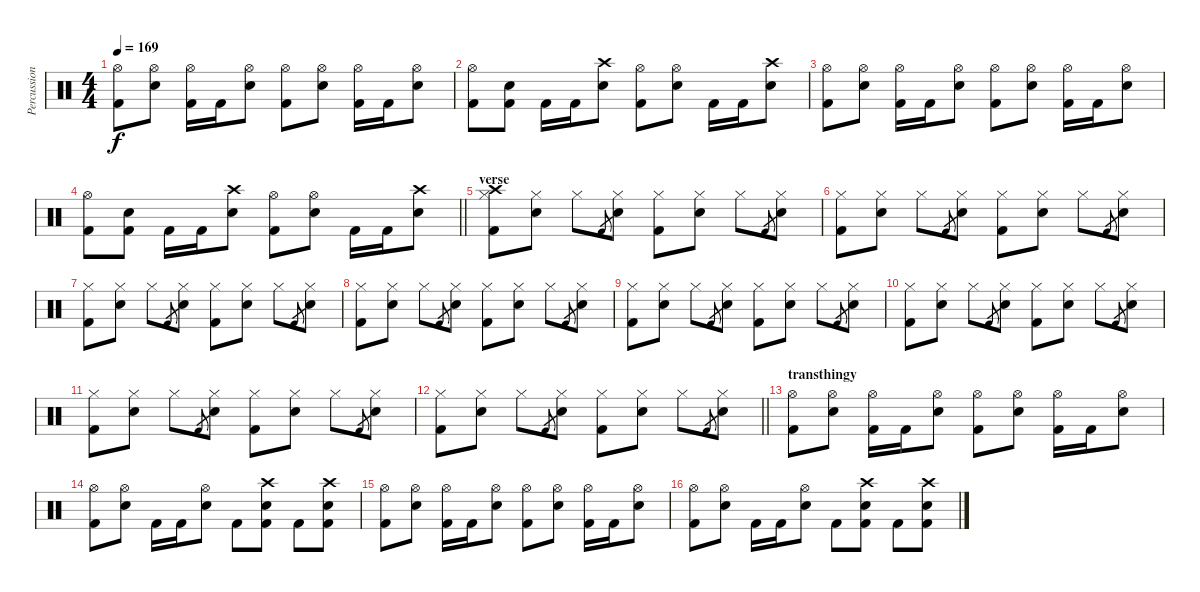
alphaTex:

\track ("Percussion" "Percussion") {instrument percussion}
\staff {score}
\articulation defaults
\ts (4 4)
\tempo 169
\clef neutral
\ks c
("Hi-Hat (open)" "Kick (hit) 2").8{dy f} ("Hi-Hat (open)" "Electric Snare (hit)").8 ("Hi-Hat (open)" "Kick (hit) 2").16 "Kick (hit) 2".16 ("Hi-Hat (open)" "Electric Snare (hit)").8 ("Hi-Hat (open)" "Kick (hit) 2").8 ("Hi-Hat (open)" "Electric Snare (hit)").8 ("Hi-Hat (open)" "Kick (hit) 2").16 "Kick (hit) 2".16 ("Hi-Hat (open)" "Electric Snare (hit)").8 |
("Hi-Hat (open)" "Kick (hit) 2").8 ("Kick (hit) 2" "Electric Snare (hit)").8 "Kick (hit) 2".16 "Kick (hit) 2".16 ("Crash high (hit)" "Electric Snare (hit)").8 ("Hi-Hat (open)" "Kick (hit) 2").8 ("Hi-Hat (open)" "Electric Snare (hit)").8 "Kick (hit) 2".16 "Kick (hit) 2".16 ("Crash high (hit)" "Electric Snare (hit)").8 |
("Hi-Hat (open)" "Kick (hit) 2").8 ("Hi-Hat (open)" "Electric Snare (hit)").8 ("Hi-Hat (open)" "Kick (hit) 2").16 "Kick (hit) 2".16 ("Hi-Hat (open)" "Electric Snare (hit)").8 ("Hi-Hat (open)" "Kick (hit) 2").8 ("Hi-Hat (open)" "Electric Snare (hit)").8 ("Hi-Hat (open)" "Kick (hit) 2").16 "Kick (hit) 2".16 ("Hi-Hat (open)" "Electric Snare (hit)").8 |
\barLineRight lightlight
("Hi-Hat (open)" "Kick (hit) 2").8 ("Kick (hit) 2" "Electric Snare (hit)").8 "Kick (hit) 2".16 "Kick (hit) 2".16 ("Crash high (hit)" "Electric Snare (hit)").8 ("Hi-Hat (open)" "Kick (hit) 2").8 ("Hi-Hat (open)" "Electric Snare (hit)").8 "Kick (hit) 2".16 "Kick (hit) 2".16 ("Crash high (hit)" "Electric Snare (hit)").8 |
\section ("" "verse")
("Crash high (hit)" "Hi-Hat (closed)" "Kick (hit) 2").8 ("Hi-Hat (closed)" "Electric Snare (hit)").8 "Hi-Hat (closed)".8 "Kick (hit) 2".8{gr} ("Hi-Hat (closed)" "Electric Snare (hit)").8 ("Hi-Hat (closed)" "Kick (hit) 2").8 ("Hi-Hat (closed)" "Electric Snare (hit)").8 "Hi-Hat (closed)".8 "Kick (hit) 2".8{gr} ("Hi-Hat (closed)" "Electric Snare (hit)").8 |
("Hi-Hat (closed)" "Kick (hit) 2").8 ("Hi-Hat (closed)" "Electric Snare (hit)").8 "Hi-Hat (closed)".8 "Kick (hit) 2".8{gr} ("Hi-Hat (closed)" "Electric Snare (hit)").8 ("Hi-Hat (closed)" "Kick (hit) 2").8 ("Hi-Hat (closed)" "Electric Snare (hit)").8 "Hi-Hat (closed)".8 "Kick (hit) 2".8{gr} ("Hi-Hat (closed)" "Electric Snare (hit)").8 |
("Hi-Hat (closed)" "Kick (hit) 2").8 ("Hi-Hat (closed)" "Electric Snare (hit)").8 "Hi-Hat (closed)".8 "Kick (hit) 2".8{gr} ("Hi-Hat (closed)" "Electric Snare (hit)").8 ("Hi-Hat (closed)" "Kick (hit) 2").8 ("Hi-Hat (closed)" "Electric Snare (hit)").8 "Hi-Hat (closed)".8 "Kick (hit) 2".8{gr} ("Hi-Hat (closed)" "Electric Snare (hit)").8 |
("Hi-Hat (closed)" "Kick (hit) 2").8 ("Hi-Hat (closed)" "Electric Snare (hit)").8 "Hi-Hat (closed)".8 "Kick (hit) 2".8{gr} ("Hi-Hat (closed)" "Electric Snare (hit)").8 ("Hi-Hat (closed)" "Kick (hit) 2").8 ("Hi-Hat (closed)" "Electric Snare (hit)").8 "Hi-Hat (closed)".8 "Kick (hit) 2".8{gr} ("Hi-Hat (closed)" "Electric Snare (hit)").8 |
("Hi-Hat (closed)" "Kick (hit) 2").8 ("Hi-Hat (closed)" "Electric Snare (hit)").8 "Hi-Hat (closed)".8 "Kick (hit) 2".8{gr} ("Hi-Hat (closed)" "Electric Snare (hit)").8 ("Hi-Hat (closed)" "Kick (hit) 2").8 ("Hi-Hat (closed)" "Electric Snare (hit)").8 "Hi-Hat (closed)".8 "Kick (hit) 2".8{gr} ("Hi-Hat (closed)" "Electric Snare (hit)").8 |
("Hi-Hat (closed)" "Kick (hit) 2").8 ("Hi-Hat (closed)" "Electric Snare (hit)").8 "Hi-Hat (closed)".8 "Kick (hit) 2".8{gr} ("Hi-Hat (closed)" "Electric Snare (hit)").8 ("Hi-Hat (closed)" "Kick (hit) 2").8 ("Hi-Hat (closed)" "Electric Snare (hit)").8 "Hi-Hat (closed)".8 "Kick (hit) 2".8{gr} ("Hi-Hat (closed)" "Electric Snare (hit)").8 |
("Hi-Hat (closed)" "Kick (hit) 2").8 ("Hi-Hat (closed)" "Electric Snare (hit)").8 "Hi-Hat (closed)".8 "Kick (hit) 2".8{gr} ("Hi-Hat (closed)" "Electric Snare (hit)").8 ("Hi-Hat (closed)" "Kick (hit) 2").8 ("Hi-Hat (closed)" "Electric Snare (hit)").8 "Hi-Hat (closed)".8 "Kick (hit) 2".8{gr} ("Hi-Hat (closed)" "Electric Snare (hit)").8 |
\barLineRight lightlight
("Hi-Hat (closed)" "Kick (hit) 2").8 ("Hi-Hat (closed)" "Electric Snare (hit)").8 "Hi-Hat (closed)".8 "Kick (hit) 2".8{gr} ("Hi-Hat (closed)" "Electric Snare (hit)").8 ("Hi-Hat (closed)" "Kick (hit) 2").8 ("Hi-Hat (closed)" "Electric Snare (hit)").8 "Hi-Hat (closed)".8 "Kick (hit) 2".8{gr} ("Hi-Hat (closed)" "Electric Snare (hit)").8 |
\section ("" "transthingy")
("Hi-Hat (open)" "Kick (hit) 2").8 ("Hi-Hat (open)" "Electric Snare (hit)").8 ("Hi-Hat (open)" "Kick (hit) 2").16 "Kick (hit) 2".16 ("Hi-Hat (open)" "Electric Snare (hit)").8 ("Hi-Hat (open)" "Kick (hit) 2").8 ("Hi-Hat (open)" "Electric Snare (hit)").8 ("Hi-Hat (open)" "Kick (hit) 2").16 "Kick (hit) 2".16 ("Hi-Hat (open)" "Electric Snare (hit)").8 |
("Hi-Hat (open)" "Kick (hit) 2").8 ("Hi-Hat (open)" "Electric Snare (hit)").8 "Kick (hit) 2".16 "Kick (hit) 2".16 ("Hi-Hat (open)" "Electric Snare (hit)").8 "Kick (hit) 2".8 ("Crash high (hit)" "Electric Snare (hit)" "Kick (hit) 2").8 "Kick (hit) 2".8 ("Crash high (hit)" "Electric Snare (hit)" "Kick (hit) 2").8 |
("Hi-Hat (open)" "Kick (hit) 2").8 ("Hi-Hat (open)" "Electric Snare (hit)").8 ("Hi-Hat (open)" "Kick (hit) 2").16 "Kick (hit) 2".16 ("Hi-Hat (open)" "Electric Snare (hit)").8 ("Hi-Hat (open)" "Kick (hit) 2").8 ("Hi-Hat (open)" "Electric Snare (hit)").8 ("Hi-Hat (open)" "Kick (hit) 2").16 "Kick (hit) 2".16 ("Hi-Hat (open)" "Electric Snare (hit)").8 |
("Hi-Hat (open)" "Kick (hit) 2").8 ("Hi-Hat (open)" "Electric Snare (hit)").8 "Kick (hit) 2".16 "Kick (hit) 2".16 ("Hi-Hat (open)" "Electric Snare (hit)").8 "Kick (hit) 2".8 ("Crash high (hit)" "Electric Snare (hit)" "Kick (hit) 2").8 "Kick (hit) 2".8 ("Crash high (hit)" "Electric Snare (hit)" "Kick (hit) 2").8
